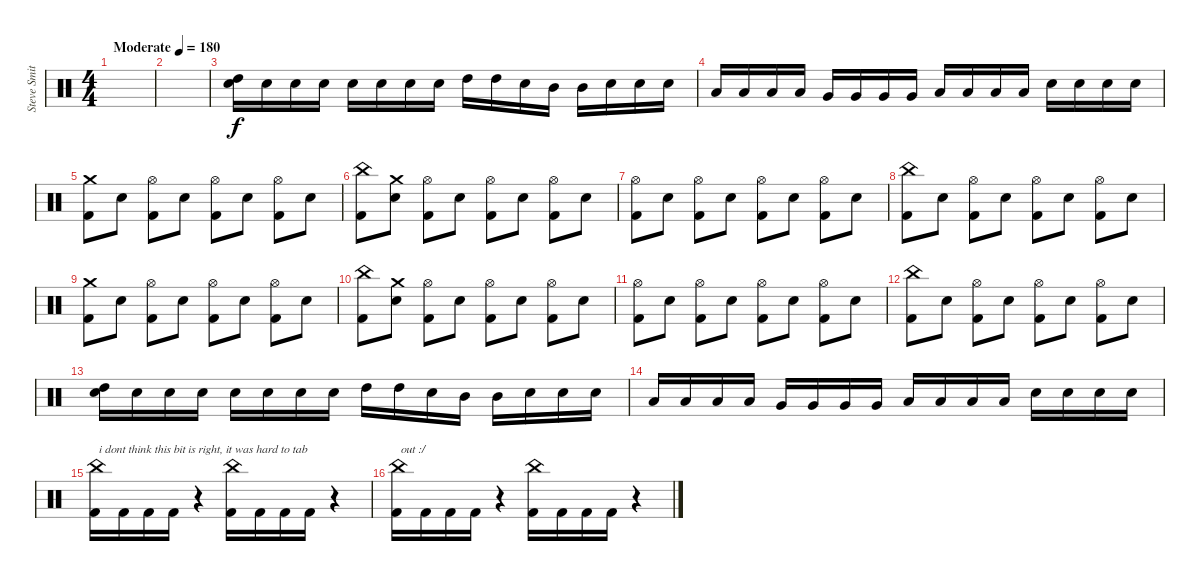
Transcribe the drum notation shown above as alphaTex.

\track ("Steve Smith" "Steve Smit") {instrument percussion}
\staff {score}
\articulation defaults
\ts (4 4)
\tempo (180 "Moderate")
\clef neutral
\ks c
|
|
("High Tom (hit)" "Electric Snare (hit)").16 "Electric Snare (hit)".16 "Electric Snare (hit)".16 "Electric Snare (hit)".16 "Electric Snare (hit)".16 "Electric Snare (hit)".16 "Electric Snare (hit)".16 "Electric Snare (hit)".16 "High Tom (hit)".16 "High Tom (hit)".16 "Electric Snare (hit)".16 "Mid Tom (hit)".16 "Mid Tom (hit)".16 "Electric Snare (hit)".16 "Electric Snare (hit)".16 "Electric Snare (hit)".16 |
"Low Tom (hit)".16 "Low Tom (hit)".16 "Low Tom (hit)".16 "Low Tom (hit)".16 "Very Low Tom (hit)".16 "Very Low Tom (hit)".16 "Very Low Tom (hit)".16 "Very Low Tom (hit)".16 "Low Floor Tom (hit)".16 "Low Floor Tom (hit)".16 "Low Floor Tom (hit)".16 "Low Floor Tom (hit)".16 "Electric Snare (hit)".16 "Electric Snare (hit)".16 "Electric Snare (hit)".16 "Electric Snare (hit)".16 |
("Crash medium (hit)" "Kick (hit) 2").8 "Electric Snare (hit)".8 ("Hi-Hat (open)" "Kick (hit) 2").8 "Electric Snare (hit)".8 ("Hi-Hat (open)" "Kick (hit) 2").8 "Electric Snare (hit)".8 ("Hi-Hat (open)" "Kick (hit) 2").8 "Electric Snare (hit)".8 |
("China (hit)" "Kick (hit) 2").8 ("Crash medium (hit)" "Electric Snare (hit)").8 ("Hi-Hat (open)" "Kick (hit) 2").8 "Electric Snare (hit)".8 ("Hi-Hat (open)" "Kick (hit) 2").8 "Electric Snare (hit)".8 ("Hi-Hat (open)" "Kick (hit) 2").8 "Electric Snare (hit)".8 |
("Hi-Hat (open)" "Kick (hit) 2").8 "Electric Snare (hit)".8 ("Hi-Hat (open)" "Kick (hit) 2").8 "Electric Snare (hit)".8 ("Hi-Hat (open)" "Kick (hit) 2").8 "Electric Snare (hit)".8 ("Hi-Hat (open)" "Kick (hit) 2").8 "Electric Snare (hit)".8 |
("China (hit)" "Kick (hit) 2").8 "Electric Snare (hit)".8 ("Hi-Hat (open)" "Kick (hit) 2").8 "Electric Snare (hit)".8 ("Hi-Hat (open)" "Kick (hit) 2").8 "Electric Snare (hit)".8 ("Hi-Hat (open)" "Kick (hit) 2").8 "Electric Snare (hit)".8 |
("Crash medium (hit)" "Kick (hit) 2").8 "Electric Snare (hit)".8 ("Hi-Hat (open)" "Kick (hit) 2").8 "Electric Snare (hit)".8 ("Hi-Hat (open)" "Kick (hit) 2").8 "Electric Snare (hit)".8 ("Hi-Hat (open)" "Kick (hit) 2").8 "Electric Snare (hit)".8 |
("China (hit)" "Kick (hit) 2").8 ("Crash medium (hit)" "Electric Snare (hit)").8 ("Hi-Hat (open)" "Kick (hit) 2").8 "Electric Snare (hit)".8 ("Hi-Hat (open)" "Kick (hit) 2").8 "Electric Snare (hit)".8 ("Hi-Hat (open)" "Kick (hit) 2").8 "Electric Snare (hit)".8 |
("Hi-Hat (open)" "Kick (hit) 2").8 "Electric Snare (hit)".8 ("Hi-Hat (open)" "Kick (hit) 2").8 "Electric Snare (hit)".8 ("Hi-Hat (open)" "Kick (hit) 2").8 "Electric Snare (hit)".8 ("Hi-Hat (open)" "Kick (hit) 2").8 "Electric Snare (hit)".8 |
("China (hit)" "Kick (hit) 2").8 "Electric Snare (hit)".8 ("Hi-Hat (open)" "Kick (hit) 2").8 "Electric Snare (hit)".8 ("Hi-Hat (open)" "Kick (hit) 2").8 "Electric Snare (hit)".8 ("Hi-Hat (open)" "Kick (hit) 2").8 "Electric Snare (hit)".8 |
("High Tom (hit)" "Electric Snare (hit)").16 "Electric Snare (hit)".16 "Electric Snare (hit)".16 "Electric Snare (hit)".16 "Electric Snare (hit)".16 "Electric Snare (hit)".16 "Electric Snare (hit)".16 "Electric Snare (hit)".16 "High Tom (hit)".16 "High Tom (hit)".16 "Electric Snare (hit)".16 "Mid Tom (hit)".16 "Mid Tom (hit)".16 "Electric Snare (hit)".16 "Electric Snare (hit)".16 "Electric Snare (hit)".16 |
"Low Tom (hit)".16 "Low Tom (hit)".16 "Low Tom (hit)".16 "Low Tom (hit)".16 "Very Low Tom (hit)".16 "Very Low Tom (hit)".16 "Very Low Tom (hit)".16 "Very Low Tom (hit)".16 "Low Floor Tom (hit)".16 "Low Floor Tom (hit)".16 "Low Floor Tom (hit)".16 "Low Floor Tom (hit)".16 "Electric Snare (hit)".16 "Electric Snare (hit)".16 "Electric Snare (hit)".16 "Electric Snare (hit)".16 |
("China (hit)" "Kick (hit) 2").16{txt "i dont think this bit is right, it was hard to tab"} "Kick (hit) 2".16 "Kick (hit) 2".16 "Kick (hit) 2".16 r.4 ("China (hit)" "Kick (hit) 2").16 "Kick (hit) 2".16 "Kick (hit) 2".16 "Kick (hit) 2".16 r.4 |
("China (hit)" "Kick (hit) 2").16{txt "out :/"} "Kick (hit) 2".16 "Kick (hit) 2".16 "Kick (hit) 2".16 r.4 ("China (hit)" "Kick (hit) 2").16 "Kick (hit) 2".16 "Kick (hit) 2".16 "Kick (hit) 2".16 r.4
